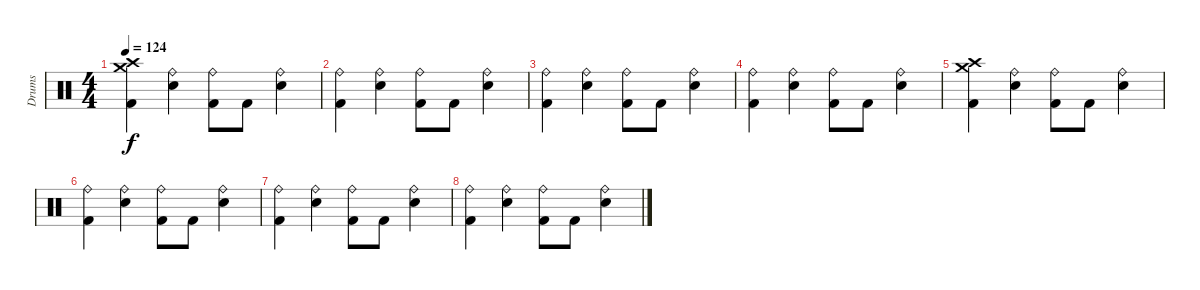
\track ("Drums" "Drums") {instrument percussion}
\staff {score}
\articulation defaults
\ts (4 4)
\tempo 124
\clef neutral
\ks c
("Crash high (hit)" "Crash medium (hit)" "Kick (hit) 2").4{dy f} ("Ride (bell)" "Electric Snare (hit)").4 ("Ride (bell)" "Kick (hit) 2").8 "Kick (hit) 2".8 ("Ride (bell)" "Electric Snare (hit)").4 |
("Ride (bell)" "Kick (hit) 2").4 ("Ride (bell)" "Electric Snare (hit)").4 ("Ride (bell)" "Kick (hit) 2").8 "Kick (hit) 2".8 ("Ride (bell)" "Electric Snare (hit)").4 |
("Ride (bell)" "Kick (hit) 2").4 ("Ride (bell)" "Electric Snare (hit)").4 ("Ride (bell)" "Kick (hit) 2").8 "Kick (hit) 2".8 ("Ride (bell)" "Electric Snare (hit)").4 |
("Ride (bell)" "Kick (hit) 2").4 ("Ride (bell)" "Electric Snare (hit)").4 ("Ride (bell)" "Kick (hit) 2").8 "Kick (hit) 2".8 ("Ride (bell)" "Electric Snare (hit)").4 |
("Crash high (hit)" "Crash medium (hit)" "Kick (hit) 2").4 ("Ride (bell)" "Electric Snare (hit)").4 ("Ride (bell)" "Kick (hit) 2").8 "Kick (hit) 2".8 ("Ride (bell)" "Electric Snare (hit)").4 |
("Ride (bell)" "Kick (hit) 2").4 ("Ride (bell)" "Electric Snare (hit)").4 ("Ride (bell)" "Kick (hit) 2").8 "Kick (hit) 2".8 ("Ride (bell)" "Electric Snare (hit)").4 |
("Ride (bell)" "Kick (hit) 2").4 ("Ride (bell)" "Electric Snare (hit)").4 ("Ride (bell)" "Kick (hit) 2").8 "Kick (hit) 2".8 ("Ride (bell)" "Electric Snare (hit)").4 |
("Ride (bell)" "Kick (hit) 2").4 ("Ride (bell)" "Electric Snare (hit)").4 ("Ride (bell)" "Kick (hit) 2").8 "Kick (hit) 2".8 ("Ride (bell)" "Electric Snare (hit)").4
